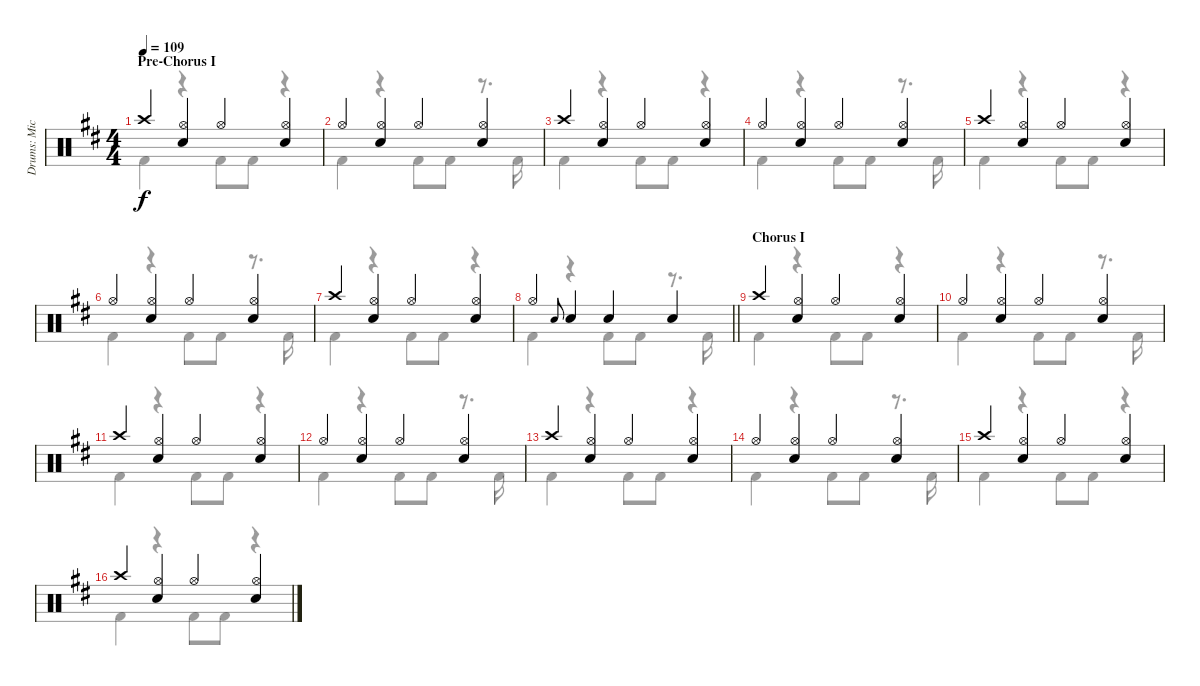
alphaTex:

\track ("Drums: Mick" "Drums: Mic") {instrument percussion}
\staff {score}
\articulation defaults
\voice
\ts (4 4)
\section ("" "Pre-Chorus I")
\tempo 109
\clef neutral
\ks d "Crash high (hit)".4{dy f}
("Hi-Hat (open)" "Snare (hit) 2").4 "Hi-Hat (open)".4 ("Hi-Hat (open)" "Snare (hit) 2").4 |
"Hi-Hat (open)".4 ("Hi-Hat (open)" "Snare (hit) 2").4 "Hi-Hat (open)".4 ("Hi-Hat (open)" "Snare (hit) 2").4 |
"Crash high (hit)".4 ("Hi-Hat (open)" "Snare (hit) 2").4 "Hi-Hat (open)".4 ("Hi-Hat (open)" "Snare (hit) 2").4 |
"Hi-Hat (open)".4 ("Hi-Hat (open)" "Snare (hit) 2").4 "Hi-Hat (open)".4 ("Hi-Hat (open)" "Snare (hit) 2").4 |
"Crash high (hit)".4 ("Hi-Hat (open)" "Snare (hit) 2").4 "Hi-Hat (open)".4 ("Hi-Hat (open)" "Snare (hit) 2").4 |
"Hi-Hat (open)".4 ("Hi-Hat (open)" "Snare (hit) 2").4 "Hi-Hat (open)".4 ("Hi-Hat (open)" "Snare (hit) 2").4 |
"Crash high (hit)".4 ("Hi-Hat (open)" "Snare (hit) 2").4 "Hi-Hat (open)".4 ("Hi-Hat (open)" "Snare (hit) 2").4 |
\barLineRight lightlight "Hi-Hat (open)".4 "Electric Snare (hit)".8{gr onbeat} "Snare (hit) 2".4 "Snare (hit) 2".4 "Snare (hit) 2".4
|
\section ("" "Chorus I")
"Crash high (hit)".4 ("Hi-Hat (open)" "Snare (hit) 2").4 "Hi-Hat (open)".4 ("Hi-Hat (open)" "Snare (hit) 2").4 |
"Hi-Hat (open)".4 ("Hi-Hat (open)" "Snare (hit) 2").4 "Hi-Hat (open)".4 ("Hi-Hat (open)" "Snare (hit) 2").4 |
"Crash high (hit)".4 ("Hi-Hat (open)" "Snare (hit) 2").4 "Hi-Hat (open)".4 ("Hi-Hat (open)" "Snare (hit) 2").4 |
"Hi-Hat (open)".4 ("Hi-Hat (open)" "Snare (hit) 2").4 "Hi-Hat (open)".4 ("Hi-Hat (open)" "Snare (hit) 2").4 |
"Crash high (hit)".4 ("Hi-Hat (open)" "Snare (hit) 2").4 "Hi-Hat (open)".4 ("Hi-Hat (open)" "Snare (hit) 2").4 |
"Hi-Hat (open)".4 ("Hi-Hat (open)" "Snare (hit) 2").4 "Hi-Hat (open)".4 ("Hi-Hat (open)" "Snare (hit) 2").4 |
"Crash high (hit)".4 ("Hi-Hat (open)" "Snare (hit) 2").4 "Hi-Hat (open)".4 ("Hi-Hat (open)" "Snare (hit) 2").4 |
"Crash high (hit)".4 ("Hi-Hat (open)" "Snare (hit) 2").4 "Hi-Hat (open)".4 ("Hi-Hat (open)" "Snare (hit) 2").4
\voice
\clef neutral
\ottava regular
\simile none
\ks d "Kick (hit) 2".4{dy f}
r.4 "Kick (hit) 2".8 "Kick (hit) 2".8 r.4 |
"Kick (hit) 2".4 r.4 "Kick (hit) 2".8 "Kick (hit) 2".8 r.8{d} "Kick (hit) 2".16 |
"Kick (hit) 2".4 r.4 "Kick (hit) 2".8 "Kick (hit) 2".8 r.4 |
"Kick (hit) 2".4 r.4 "Kick (hit) 2".8 "Kick (hit) 2".8 r.8{d} "Kick (hit) 2".16 |
"Kick (hit) 2".4 r.4 "Kick (hit) 2".8 "Kick (hit) 2".8 r.4 |
"Kick (hit) 2".4 r.4 "Kick (hit) 2".8 "Kick (hit) 2".8 r.8{d} "Kick (hit) 2".16 |
"Kick (hit) 2".4 r.4 "Kick (hit) 2".8 "Kick (hit) 2".8 r.4 |
\barLineRight lightlight "Kick (hit) 2".4
r.4 "Kick (hit) 2".8 "Kick (hit) 2".8 r.8{d} "Kick (hit) 2".16 |
"Kick (hit) 2".4 r.4 "Kick (hit) 2".8 "Kick (hit) 2".8 r.4 |
"Kick (hit) 2".4 r.4 "Kick (hit) 2".8 "Kick (hit) 2".8 r.8{d} "Kick (hit) 2".16 |
"Kick (hit) 2".4 r.4 "Kick (hit) 2".8 "Kick (hit) 2".8 r.4 |
"Kick (hit) 2".4 r.4 "Kick (hit) 2".8 "Kick (hit) 2".8 r.8{d} "Kick (hit) 2".16 |
"Kick (hit) 2".4 r.4 "Kick (hit) 2".8 "Kick (hit) 2".8 r.4 |
"Kick (hit) 2".4 r.4 "Kick (hit) 2".8 "Kick (hit) 2".8 r.8{d} "Kick (hit) 2".16 |
"Kick (hit) 2".4 r.4 "Kick (hit) 2".8 "Kick (hit) 2".8 r.4 |
"Kick (hit) 2".4 r.4 "Kick (hit) 2".8 "Kick (hit) 2".8 r.4
